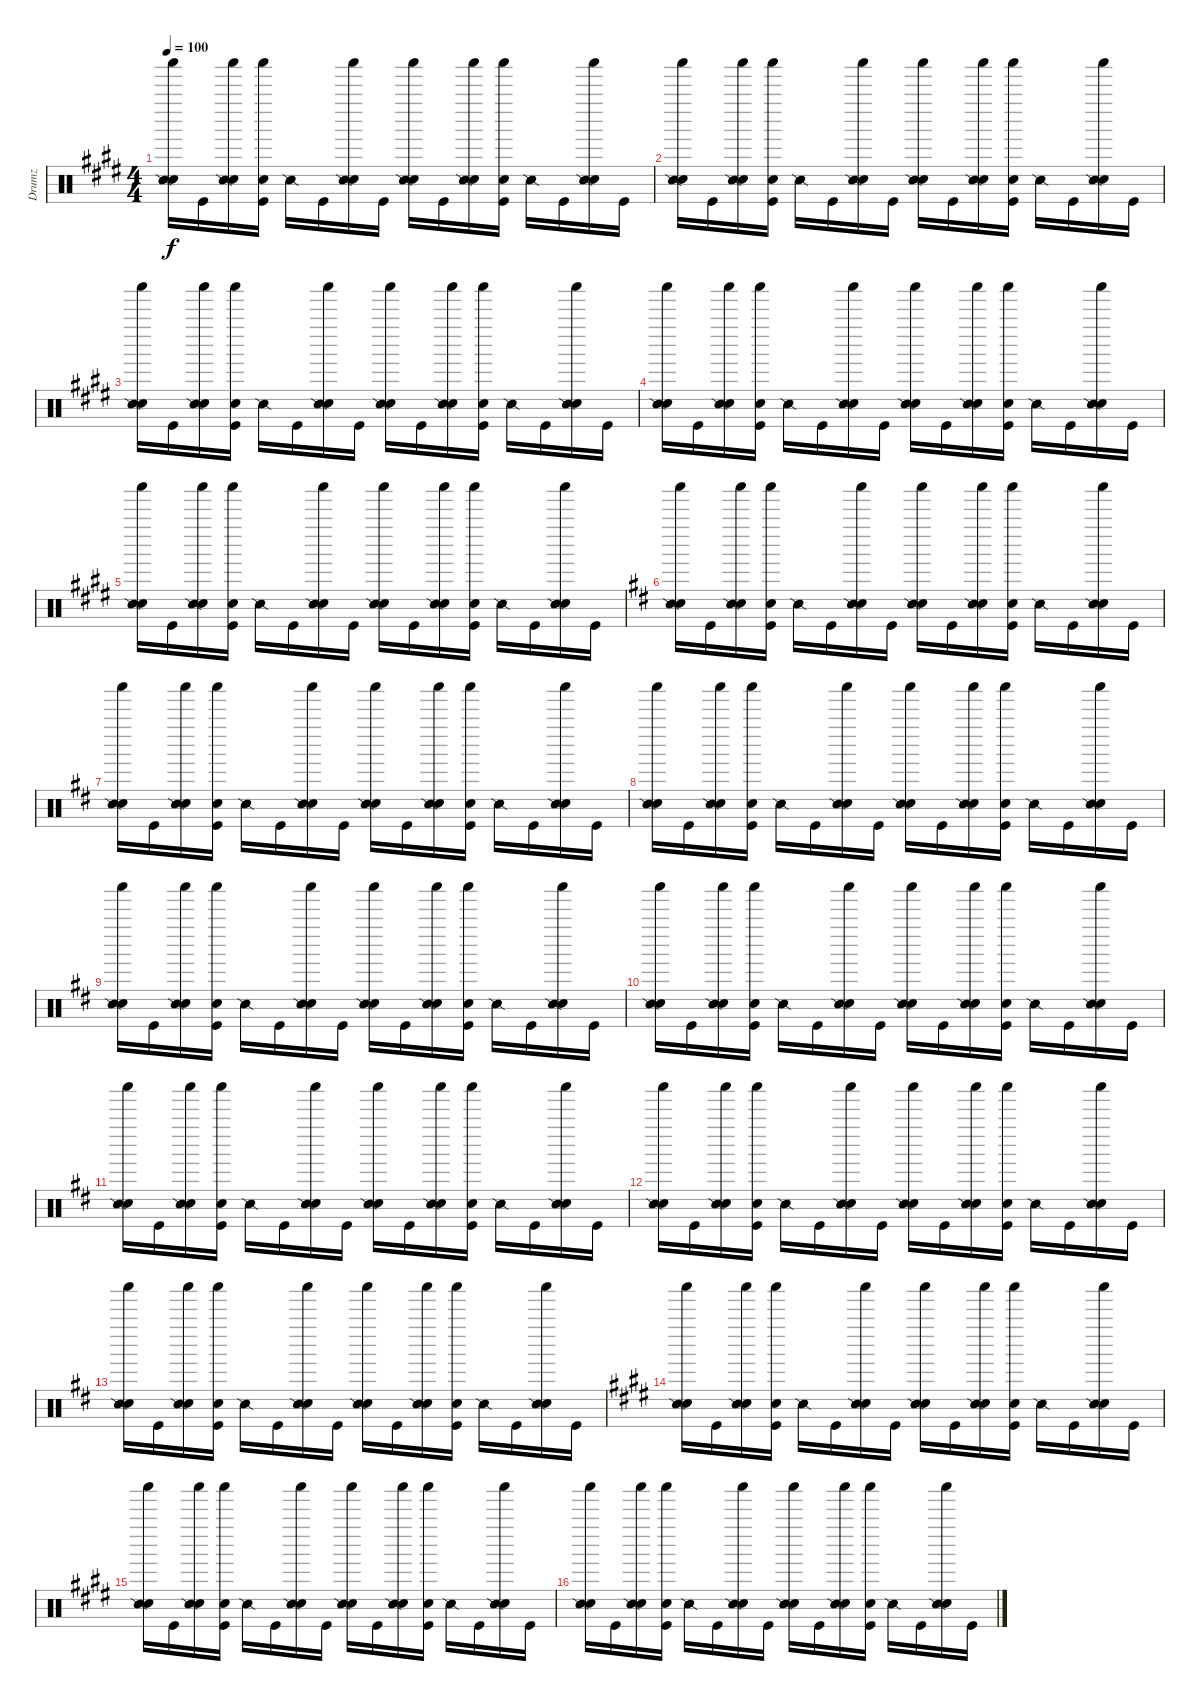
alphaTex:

\track ("Drumz" "Drumz") {instrument percussion}
\staff {score}
\articulation defaults
\ts (4 4)
\tempo 100
\clef neutral
\ks c#minor
("Shaker (hit)" "Hand Clap (hit)" "Snare (side stick) 2").16{dy f} "Kick (hit)".16 ("Shaker (hit)" "Hand Clap (hit)" "Snare (side stick) 2").16 ("Shaker (hit)" "Hand Clap (hit)" "Kick (hit)").16 "Snare (side stick) 2".16 "Kick (hit)".16 ("Shaker (hit)" "Hand Clap (hit)" "Snare (side stick) 2").16 "Kick (hit)".16 ("Shaker (hit)" "Hand Clap (hit)" "Snare (side stick) 2").16 "Kick (hit)".16 ("Shaker (hit)" "Hand Clap (hit)" "Snare (side stick) 2").16 ("Shaker (hit)" "Hand Clap (hit)" "Kick (hit)").16 "Snare (side stick) 2".16 "Kick (hit)".16 ("Shaker (hit)" "Hand Clap (hit)" "Snare (side stick) 2").16 "Kick (hit)".16 |
("Shaker (hit)" "Hand Clap (hit)" "Snare (side stick) 2").16 "Kick (hit)".16 ("Shaker (hit)" "Hand Clap (hit)" "Snare (side stick) 2").16 ("Shaker (hit)" "Hand Clap (hit)" "Kick (hit)").16 "Snare (side stick) 2".16 "Kick (hit)".16 ("Shaker (hit)" "Hand Clap (hit)" "Snare (side stick) 2").16 "Kick (hit)".16 ("Shaker (hit)" "Hand Clap (hit)" "Snare (side stick) 2").16 "Kick (hit)".16 ("Shaker (hit)" "Hand Clap (hit)" "Snare (side stick) 2").16 ("Shaker (hit)" "Hand Clap (hit)" "Kick (hit)").16 "Snare (side stick) 2".16 "Kick (hit)".16 ("Shaker (hit)" "Hand Clap (hit)" "Snare (side stick) 2").16 "Kick (hit)".16 |
("Shaker (hit)" "Hand Clap (hit)" "Snare (side stick) 2").16 "Kick (hit)".16 ("Shaker (hit)" "Hand Clap (hit)" "Snare (side stick) 2").16 ("Shaker (hit)" "Hand Clap (hit)" "Kick (hit)").16 "Snare (side stick) 2".16 "Kick (hit)".16 ("Shaker (hit)" "Hand Clap (hit)" "Snare (side stick) 2").16 "Kick (hit)".16 ("Shaker (hit)" "Hand Clap (hit)" "Snare (side stick) 2").16 "Kick (hit)".16 ("Shaker (hit)" "Hand Clap (hit)" "Snare (side stick) 2").16 ("Shaker (hit)" "Hand Clap (hit)" "Kick (hit)").16 "Snare (side stick) 2".16 "Kick (hit)".16 ("Shaker (hit)" "Hand Clap (hit)" "Snare (side stick) 2").16 "Kick (hit)".16 |
("Shaker (hit)" "Hand Clap (hit)" "Snare (side stick) 2").16 "Kick (hit)".16 ("Shaker (hit)" "Hand Clap (hit)" "Snare (side stick) 2").16 ("Shaker (hit)" "Hand Clap (hit)" "Kick (hit)").16 "Snare (side stick) 2".16 "Kick (hit)".16 ("Shaker (hit)" "Hand Clap (hit)" "Snare (side stick) 2").16 "Kick (hit)".16 ("Shaker (hit)" "Hand Clap (hit)" "Snare (side stick) 2").16 "Kick (hit)".16 ("Shaker (hit)" "Hand Clap (hit)" "Snare (side stick) 2").16 ("Shaker (hit)" "Hand Clap (hit)" "Kick (hit)").16 "Snare (side stick) 2".16 "Kick (hit)".16 ("Shaker (hit)" "Hand Clap (hit)" "Snare (side stick) 2").16 "Kick (hit)".16 |
("Shaker (hit)" "Hand Clap (hit)" "Snare (side stick) 2").16 "Kick (hit)".16 ("Shaker (hit)" "Hand Clap (hit)" "Snare (side stick) 2").16 ("Shaker (hit)" "Hand Clap (hit)" "Kick (hit)").16 "Snare (side stick) 2".16 "Kick (hit)".16 ("Shaker (hit)" "Hand Clap (hit)" "Snare (side stick) 2").16 "Kick (hit)".16 ("Shaker (hit)" "Hand Clap (hit)" "Snare (side stick) 2").16 "Kick (hit)".16 ("Shaker (hit)" "Hand Clap (hit)" "Snare (side stick) 2").16 ("Shaker (hit)" "Hand Clap (hit)" "Kick (hit)").16 "Snare (side stick) 2".16 "Kick (hit)".16 ("Shaker (hit)" "Hand Clap (hit)" "Snare (side stick) 2").16 "Kick (hit)".16 |
\ks d
("Shaker (hit)" "Hand Clap (hit)" "Snare (side stick) 2").16 "Kick (hit)".16 ("Shaker (hit)" "Hand Clap (hit)" "Snare (side stick) 2").16 ("Shaker (hit)" "Hand Clap (hit)" "Kick (hit)").16 "Snare (side stick) 2".16 "Kick (hit)".16 ("Shaker (hit)" "Hand Clap (hit)" "Snare (side stick) 2").16 "Kick (hit)".16 ("Shaker (hit)" "Hand Clap (hit)" "Snare (side stick) 2").16 "Kick (hit)".16 ("Shaker (hit)" "Hand Clap (hit)" "Snare (side stick) 2").16 ("Shaker (hit)" "Hand Clap (hit)" "Kick (hit)").16 "Snare (side stick) 2".16 "Kick (hit)".16 ("Shaker (hit)" "Hand Clap (hit)" "Snare (side stick) 2").16 "Kick (hit)".16 |
("Shaker (hit)" "Hand Clap (hit)" "Snare (side stick) 2").16 "Kick (hit)".16 ("Shaker (hit)" "Hand Clap (hit)" "Snare (side stick) 2").16 ("Shaker (hit)" "Hand Clap (hit)" "Kick (hit)").16 "Snare (side stick) 2".16 "Kick (hit)".16 ("Shaker (hit)" "Hand Clap (hit)" "Snare (side stick) 2").16 "Kick (hit)".16 ("Shaker (hit)" "Hand Clap (hit)" "Snare (side stick) 2").16 "Kick (hit)".16 ("Shaker (hit)" "Hand Clap (hit)" "Snare (side stick) 2").16 ("Shaker (hit)" "Hand Clap (hit)" "Kick (hit)").16 "Snare (side stick) 2".16 "Kick (hit)".16 ("Shaker (hit)" "Hand Clap (hit)" "Snare (side stick) 2").16 "Kick (hit)".16 |
("Shaker (hit)" "Hand Clap (hit)" "Snare (side stick) 2").16 "Kick (hit)".16 ("Shaker (hit)" "Hand Clap (hit)" "Snare (side stick) 2").16 ("Shaker (hit)" "Hand Clap (hit)" "Kick (hit)").16 "Snare (side stick) 2".16 "Kick (hit)".16 ("Shaker (hit)" "Hand Clap (hit)" "Snare (side stick) 2").16 "Kick (hit)".16 ("Shaker (hit)" "Hand Clap (hit)" "Snare (side stick) 2").16 "Kick (hit)".16 ("Shaker (hit)" "Hand Clap (hit)" "Snare (side stick) 2").16 ("Shaker (hit)" "Hand Clap (hit)" "Kick (hit)").16 "Snare (side stick) 2".16 "Kick (hit)".16 ("Shaker (hit)" "Hand Clap (hit)" "Snare (side stick) 2").16 "Kick (hit)".16 |
("Shaker (hit)" "Hand Clap (hit)" "Snare (side stick) 2").16 "Kick (hit)".16 ("Shaker (hit)" "Hand Clap (hit)" "Snare (side stick) 2").16 ("Shaker (hit)" "Hand Clap (hit)" "Kick (hit)").16 "Snare (side stick) 2".16 "Kick (hit)".16 ("Shaker (hit)" "Hand Clap (hit)" "Snare (side stick) 2").16 "Kick (hit)".16 ("Shaker (hit)" "Hand Clap (hit)" "Snare (side stick) 2").16 "Kick (hit)".16 ("Shaker (hit)" "Hand Clap (hit)" "Snare (side stick) 2").16 ("Shaker (hit)" "Hand Clap (hit)" "Kick (hit)").16 "Snare (side stick) 2".16 "Kick (hit)".16 ("Shaker (hit)" "Hand Clap (hit)" "Snare (side stick) 2").16 "Kick (hit)".16 |
("Shaker (hit)" "Hand Clap (hit)" "Snare (side stick) 2").16 "Kick (hit)".16 ("Shaker (hit)" "Hand Clap (hit)" "Snare (side stick) 2").16 ("Shaker (hit)" "Hand Clap (hit)" "Kick (hit)").16 "Snare (side stick) 2".16 "Kick (hit)".16 ("Shaker (hit)" "Hand Clap (hit)" "Snare (side stick) 2").16 "Kick (hit)".16 ("Shaker (hit)" "Hand Clap (hit)" "Snare (side stick) 2").16 "Kick (hit)".16 ("Shaker (hit)" "Hand Clap (hit)" "Snare (side stick) 2").16 ("Shaker (hit)" "Hand Clap (hit)" "Kick (hit)").16 "Snare (side stick) 2".16 "Kick (hit)".16 ("Shaker (hit)" "Hand Clap (hit)" "Snare (side stick) 2").16 "Kick (hit)".16 |
("Shaker (hit)" "Hand Clap (hit)" "Snare (side stick) 2").16 "Kick (hit)".16 ("Shaker (hit)" "Hand Clap (hit)" "Snare (side stick) 2").16 ("Shaker (hit)" "Hand Clap (hit)" "Kick (hit)").16 "Snare (side stick) 2".16 "Kick (hit)".16 ("Shaker (hit)" "Hand Clap (hit)" "Snare (side stick) 2").16 "Kick (hit)".16 ("Shaker (hit)" "Hand Clap (hit)" "Snare (side stick) 2").16 "Kick (hit)".16 ("Shaker (hit)" "Hand Clap (hit)" "Snare (side stick) 2").16 ("Shaker (hit)" "Hand Clap (hit)" "Kick (hit)").16 "Snare (side stick) 2".16 "Kick (hit)".16 ("Shaker (hit)" "Hand Clap (hit)" "Snare (side stick) 2").16 "Kick (hit)".16 |
("Shaker (hit)" "Hand Clap (hit)" "Snare (side stick) 2").16 "Kick (hit)".16 ("Shaker (hit)" "Hand Clap (hit)" "Snare (side stick) 2").16 ("Shaker (hit)" "Hand Clap (hit)" "Kick (hit)").16 "Snare (side stick) 2".16 "Kick (hit)".16 ("Shaker (hit)" "Hand Clap (hit)" "Snare (side stick) 2").16 "Kick (hit)".16 ("Shaker (hit)" "Hand Clap (hit)" "Snare (side stick) 2").16 "Kick (hit)".16 ("Shaker (hit)" "Hand Clap (hit)" "Snare (side stick) 2").16 ("Shaker (hit)" "Hand Clap (hit)" "Kick (hit)").16 "Snare (side stick) 2".16 "Kick (hit)".16 ("Shaker (hit)" "Hand Clap (hit)" "Snare (side stick) 2").16 "Kick (hit)".16 |
("Shaker (hit)" "Hand Clap (hit)" "Snare (side stick) 2").16 "Kick (hit)".16 ("Shaker (hit)" "Hand Clap (hit)" "Snare (side stick) 2").16 ("Shaker (hit)" "Hand Clap (hit)" "Kick (hit)").16 "Snare (side stick) 2".16 "Kick (hit)".16 ("Shaker (hit)" "Hand Clap (hit)" "Snare (side stick) 2").16 "Kick (hit)".16 ("Shaker (hit)" "Hand Clap (hit)" "Snare (side stick) 2").16 "Kick (hit)".16 ("Shaker (hit)" "Hand Clap (hit)" "Snare (side stick) 2").16 ("Shaker (hit)" "Hand Clap (hit)" "Kick (hit)").16 "Snare (side stick) 2".16 "Kick (hit)".16 ("Shaker (hit)" "Hand Clap (hit)" "Snare (side stick) 2").16 "Kick (hit)".16 |
\ks c#minor
("Shaker (hit)" "Hand Clap (hit)" "Snare (side stick) 2").16 "Kick (hit)".16 ("Shaker (hit)" "Hand Clap (hit)" "Snare (side stick) 2").16 ("Shaker (hit)" "Hand Clap (hit)" "Kick (hit)").16 "Snare (side stick) 2".16 "Kick (hit)".16 ("Shaker (hit)" "Hand Clap (hit)" "Snare (side stick) 2").16 "Kick (hit)".16 ("Shaker (hit)" "Hand Clap (hit)" "Snare (side stick) 2").16 "Kick (hit)".16 ("Shaker (hit)" "Hand Clap (hit)" "Snare (side stick) 2").16 ("Shaker (hit)" "Hand Clap (hit)" "Kick (hit)").16 "Snare (side stick) 2".16 "Kick (hit)".16 ("Shaker (hit)" "Hand Clap (hit)" "Snare (side stick) 2").16 "Kick (hit)".16 |
("Shaker (hit)" "Hand Clap (hit)" "Snare (side stick) 2").16 "Kick (hit)".16 ("Shaker (hit)" "Hand Clap (hit)" "Snare (side stick) 2").16 ("Shaker (hit)" "Hand Clap (hit)" "Kick (hit)").16 "Snare (side stick) 2".16 "Kick (hit)".16 ("Shaker (hit)" "Hand Clap (hit)" "Snare (side stick) 2").16 "Kick (hit)".16 ("Shaker (hit)" "Hand Clap (hit)" "Snare (side stick) 2").16 "Kick (hit)".16 ("Shaker (hit)" "Hand Clap (hit)" "Snare (side stick) 2").16 ("Shaker (hit)" "Hand Clap (hit)" "Kick (hit)").16 "Snare (side stick) 2".16 "Kick (hit)".16 ("Shaker (hit)" "Hand Clap (hit)" "Snare (side stick) 2").16 "Kick (hit)".16 |
("Shaker (hit)" "Hand Clap (hit)" "Snare (side stick) 2").16 "Kick (hit)".16 ("Shaker (hit)" "Hand Clap (hit)" "Snare (side stick) 2").16 ("Shaker (hit)" "Hand Clap (hit)" "Kick (hit)").16 "Snare (side stick) 2".16 "Kick (hit)".16 ("Shaker (hit)" "Hand Clap (hit)" "Snare (side stick) 2").16 "Kick (hit)".16 ("Shaker (hit)" "Hand Clap (hit)" "Snare (side stick) 2").16 "Kick (hit)".16 ("Shaker (hit)" "Hand Clap (hit)" "Snare (side stick) 2").16 ("Shaker (hit)" "Hand Clap (hit)" "Kick (hit)").16 "Snare (side stick) 2".16 "Kick (hit)".16 ("Shaker (hit)" "Hand Clap (hit)" "Snare (side stick) 2").16 "Kick (hit)".16
